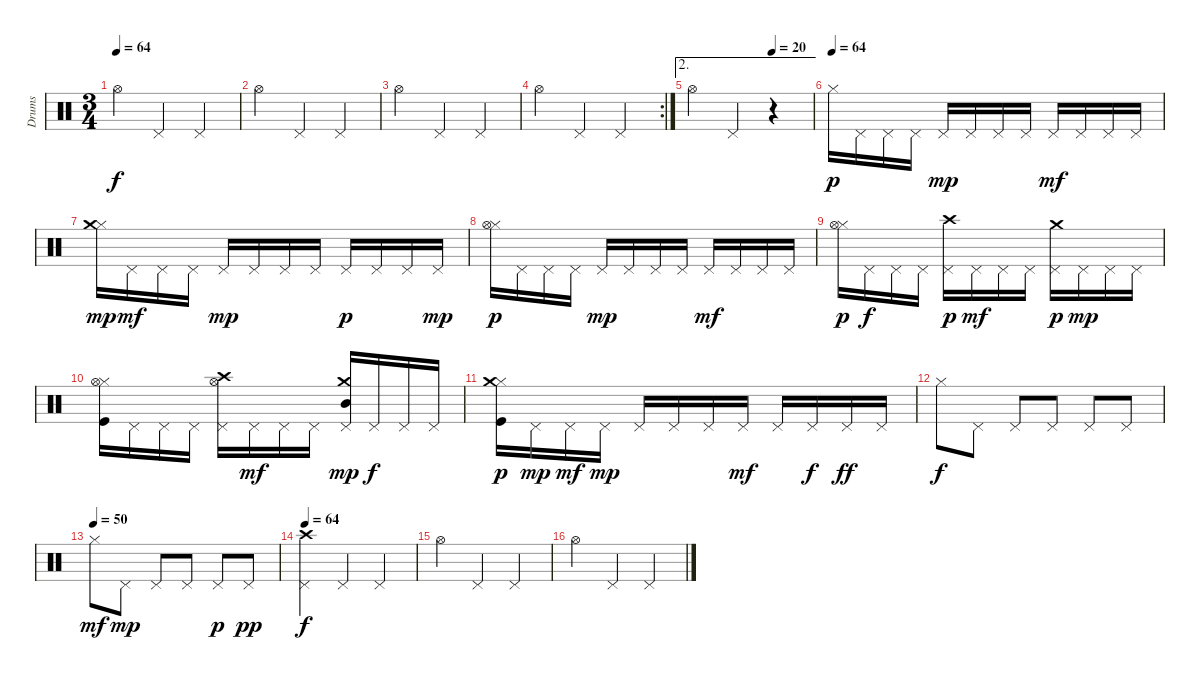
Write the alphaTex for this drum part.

\track ("Drums" "Drums") {instrument percussion}
\staff {score}
\articulation defaults
\ts (3 4)
\tempo 64
\clef neutral
\ks c "Hi-Hat (open)".4{dy f} "Pedal Hi-Hat (hit)".4 "Pedal Hi-Hat (hit)".4
|
"Hi-Hat (open)".4 "Pedal Hi-Hat (hit)".4 "Pedal Hi-Hat (hit)".4 |
"Hi-Hat (open)".4 "Pedal Hi-Hat (hit)".4 "Pedal Hi-Hat (hit)".4 |
\rc 2 "Hi-Hat (open)".4 "Pedal Hi-Hat (hit)".4 "Pedal Hi-Hat (hit)".4
|
\ae 2
\tempo (20 0.6666666666666666)
"Hi-Hat (open)".4 "Pedal Hi-Hat (hit)".4 r.4 |
\tempo (64)
"Hi-Hat (closed)".16{dy p} "Pedal Hi-Hat (hit)".16 "Pedal Hi-Hat (hit)".16 "Pedal Hi-Hat (hit)".16 "Pedal Hi-Hat (hit)".16{dy mp} "Pedal Hi-Hat (hit)".16 "Pedal Hi-Hat (hit)".16 "Pedal Hi-Hat (hit)".16 "Pedal Hi-Hat (hit)".16{dy mf} "Pedal Hi-Hat (hit)".16 "Pedal Hi-Hat (hit)".16 "Pedal Hi-Hat (hit)".16 |
("Hi-Hat (closed)" "Crash medium (hit)").16{dy mp} "Pedal Hi-Hat (hit)".16{dy mf} "Pedal Hi-Hat (hit)".16 "Pedal Hi-Hat (hit)".16 "Pedal Hi-Hat (hit)".16{dy mp} "Pedal Hi-Hat (hit)".16 "Pedal Hi-Hat (hit)".16 "Pedal Hi-Hat (hit)".16 "Pedal Hi-Hat (hit)".16{dy p} "Pedal Hi-Hat (hit)".16 "Pedal Hi-Hat (hit)".16 "Pedal Hi-Hat (hit)".16{dy mp} |
("Hi-Hat (closed)" "Hi-Hat (open)").16{dy p} "Pedal Hi-Hat (hit)".16 "Pedal Hi-Hat (hit)".16 "Pedal Hi-Hat (hit)".16 "Pedal Hi-Hat (hit)".16{dy mp} "Pedal Hi-Hat (hit)".16 "Pedal Hi-Hat (hit)".16 "Pedal Hi-Hat (hit)".16 "Pedal Hi-Hat (hit)".16{dy mf} "Pedal Hi-Hat (hit)".16 "Pedal Hi-Hat (hit)".16 "Pedal Hi-Hat (hit)".16 |
("Hi-Hat (closed)" "Hi-Hat (open)").16{dy p} "Pedal Hi-Hat (hit)".16{dy f} "Pedal Hi-Hat (hit)".16 "Pedal Hi-Hat (hit)".16 ("Pedal Hi-Hat (hit)" "Crash high (hit)").16{dy p} "Pedal Hi-Hat (hit)".16{dy mf} "Pedal Hi-Hat (hit)".16 "Pedal Hi-Hat (hit)".16 ("Pedal Hi-Hat (hit)" "Crash medium (hit)").16{dy p} "Pedal Hi-Hat (hit)".16{dy mp} "Pedal Hi-Hat (hit)".16 "Pedal Hi-Hat (hit)".16 |
("Hi-Hat (closed)" "Hi-Hat (open)" "Kick (hit)").16 "Pedal Hi-Hat (hit)".16 "Pedal Hi-Hat (hit)".16 "Pedal Hi-Hat (hit)".16 ("Pedal Hi-Hat (hit)" "Crash high (hit)" "Hi-Hat (open)").16 "Pedal Hi-Hat (hit)".16{dy mf} "Pedal Hi-Hat (hit)".16 "Pedal Hi-Hat (hit)".16 ("Pedal Hi-Hat (hit)" "Crash medium (hit)" "Mid Tom (hit)").16{dy mp} "Pedal Hi-Hat (hit)".16{dy f} "Pedal Hi-Hat (hit)".16 "Pedal Hi-Hat (hit)".16 |
("Hi-Hat (closed)" "Crash medium (hit)" "Kick (hit)").16{dy p} "Pedal Hi-Hat (hit)".16{dy mp} "Pedal Hi-Hat (hit)".16{dy mf} "Pedal Hi-Hat (hit)".16{dy mp} "Pedal Hi-Hat (hit)".16 "Pedal Hi-Hat (hit)".16 "Pedal Hi-Hat (hit)".16 "Pedal Hi-Hat (hit)".16{dy mf} "Pedal Hi-Hat (hit)".16 "Pedal Hi-Hat (hit)".16{dy f} "Pedal Hi-Hat (hit)".16{dy ff} "Pedal Hi-Hat (hit)".16 |
"Hi-Hat (closed)".8{dy f} "Pedal Hi-Hat (hit)".8 "Pedal Hi-Hat (hit)".8 "Pedal Hi-Hat (hit)".8 "Pedal Hi-Hat (hit)".8 "Pedal Hi-Hat (hit)".8 |
\tempo (50)
"Hi-Hat (closed)".8{dy mf} "Pedal Hi-Hat (hit)".8{dy mp} "Pedal Hi-Hat (hit)".8 "Pedal Hi-Hat (hit)".8 "Pedal Hi-Hat (hit)".8{dy p} "Pedal Hi-Hat (hit)".8{dy pp} |
\tempo 64
("Pedal Hi-Hat (hit)" "Crash high (hit)").4{dy f} "Pedal Hi-Hat (hit)".4 "Pedal Hi-Hat (hit)".4 |
"Hi-Hat (open)".4 "Pedal Hi-Hat (hit)".4 "Pedal Hi-Hat (hit)".4 |
"Hi-Hat (open)".4 "Pedal Hi-Hat (hit)".4 "Pedal Hi-Hat (hit)".4
